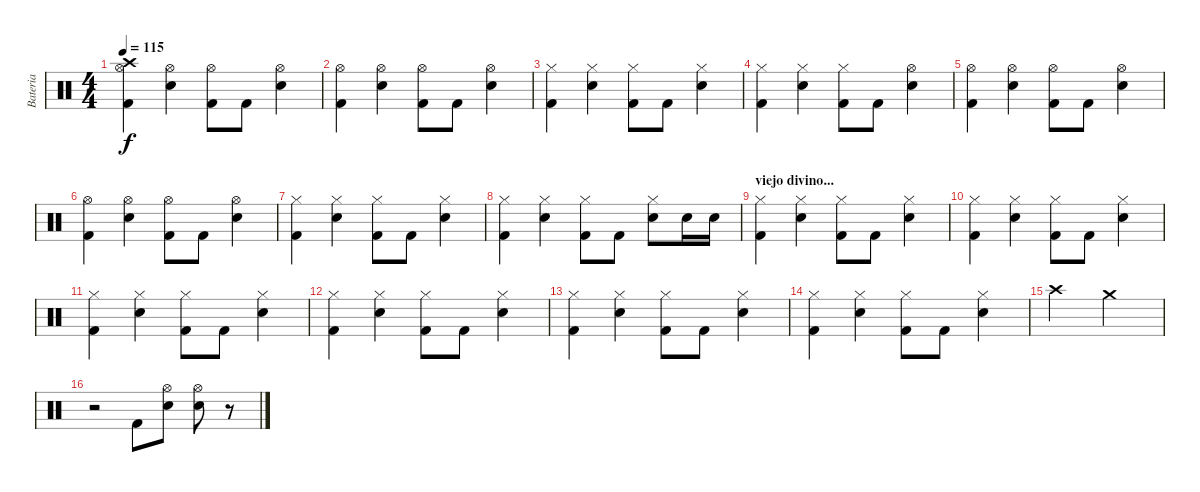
\track ("Bateria" "Bateria") {instrument percussion}
\staff {score}
\articulation defaults
\ts (4 4)
\tempo 115
\clef neutral
\ks c
("Crash high (hit)" "Hi-Hat (open)" "Kick (hit) 2").4{dy f} ("Hi-Hat (open)" "Electric Snare (hit)").4 ("Hi-Hat (open)" "Kick (hit) 2").8 "Kick (hit) 2".8 ("Hi-Hat (open)" "Electric Snare (hit)").4 |
("Hi-Hat (open)" "Kick (hit) 2").4 ("Hi-Hat (open)" "Electric Snare (hit)").4 ("Hi-Hat (open)" "Kick (hit) 2").8 "Kick (hit) 2".8 ("Hi-Hat (open)" "Electric Snare (hit)").4 |
("Hi-Hat (closed)" "Kick (hit) 2").4 ("Hi-Hat (closed)" "Electric Snare (hit)").4 ("Hi-Hat (closed)" "Kick (hit) 2").8 "Kick (hit) 2".8 ("Hi-Hat (closed)" "Electric Snare (hit)").4 |
("Hi-Hat (closed)" "Kick (hit) 2").4 ("Hi-Hat (closed)" "Electric Snare (hit)").4 ("Hi-Hat (closed)" "Kick (hit) 2").8 "Kick (hit) 2".8 ("Hi-Hat (open)" "Electric Snare (hit)").4 |
("Hi-Hat (open)" "Kick (hit) 2").4 ("Hi-Hat (open)" "Electric Snare (hit)").4 ("Hi-Hat (open)" "Kick (hit) 2").8 "Kick (hit) 2".8 ("Hi-Hat (open)" "Electric Snare (hit)").4 |
("Hi-Hat (open)" "Kick (hit) 2").4 ("Hi-Hat (open)" "Electric Snare (hit)").4 ("Hi-Hat (open)" "Kick (hit) 2").8 "Kick (hit) 2".8 ("Hi-Hat (open)" "Electric Snare (hit)").4 |
("Hi-Hat (closed)" "Kick (hit) 2").4 ("Hi-Hat (closed)" "Electric Snare (hit)").4 ("Hi-Hat (closed)" "Kick (hit) 2").8 "Kick (hit) 2".8 ("Hi-Hat (closed)" "Electric Snare (hit)").4 |
("Hi-Hat (closed)" "Kick (hit) 2").4 ("Hi-Hat (closed)" "Electric Snare (hit)").4 ("Hi-Hat (closed)" "Kick (hit) 2").8 "Kick (hit) 2".8 ("Hi-Hat (closed)" "Electric Snare (hit)").8 "Electric Snare (hit)".16 "Electric Snare (hit)".16 |
\section ("" "viejo divino...")
("Hi-Hat (closed)" "Kick (hit) 2").4 ("Hi-Hat (closed)" "Electric Snare (hit)").4 ("Hi-Hat (closed)" "Kick (hit) 2").8 "Kick (hit) 2".8 ("Hi-Hat (closed)" "Electric Snare (hit)").4 |
("Hi-Hat (closed)" "Kick (hit) 2").4 ("Hi-Hat (closed)" "Electric Snare (hit)").4 ("Hi-Hat (closed)" "Kick (hit) 2").8 "Kick (hit) 2".8 ("Hi-Hat (closed)" "Electric Snare (hit)").4 |
("Hi-Hat (closed)" "Kick (hit) 2").4 ("Hi-Hat (closed)" "Electric Snare (hit)").4 ("Hi-Hat (closed)" "Kick (hit) 2").8 "Kick (hit) 2".8 ("Hi-Hat (closed)" "Electric Snare (hit)").4 |
("Hi-Hat (closed)" "Kick (hit) 2").4 ("Hi-Hat (closed)" "Electric Snare (hit)").4 ("Hi-Hat (closed)" "Kick (hit) 2").8 "Kick (hit) 2".8 ("Hi-Hat (closed)" "Electric Snare (hit)").4 |
("Hi-Hat (closed)" "Kick (hit) 2").4 ("Hi-Hat (closed)" "Electric Snare (hit)").4 ("Hi-Hat (closed)" "Kick (hit) 2").8 "Kick (hit) 2".8 ("Hi-Hat (closed)" "Electric Snare (hit)").4 |
("Hi-Hat (closed)" "Kick (hit) 2").4 ("Hi-Hat (closed)" "Electric Snare (hit)").4 ("Hi-Hat (closed)" "Kick (hit) 2").8 "Kick (hit) 2".8 ("Hi-Hat (closed)" "Electric Snare (hit)").4 |
"Crash high (hit)".2 "Crash medium (hit)".2 |
r.2 "Kick (hit) 2".8 ("Hi-Hat (open)" "Electric Snare (hit)").8 ("Hi-Hat (open)" "Electric Snare (hit)").8 r.8
